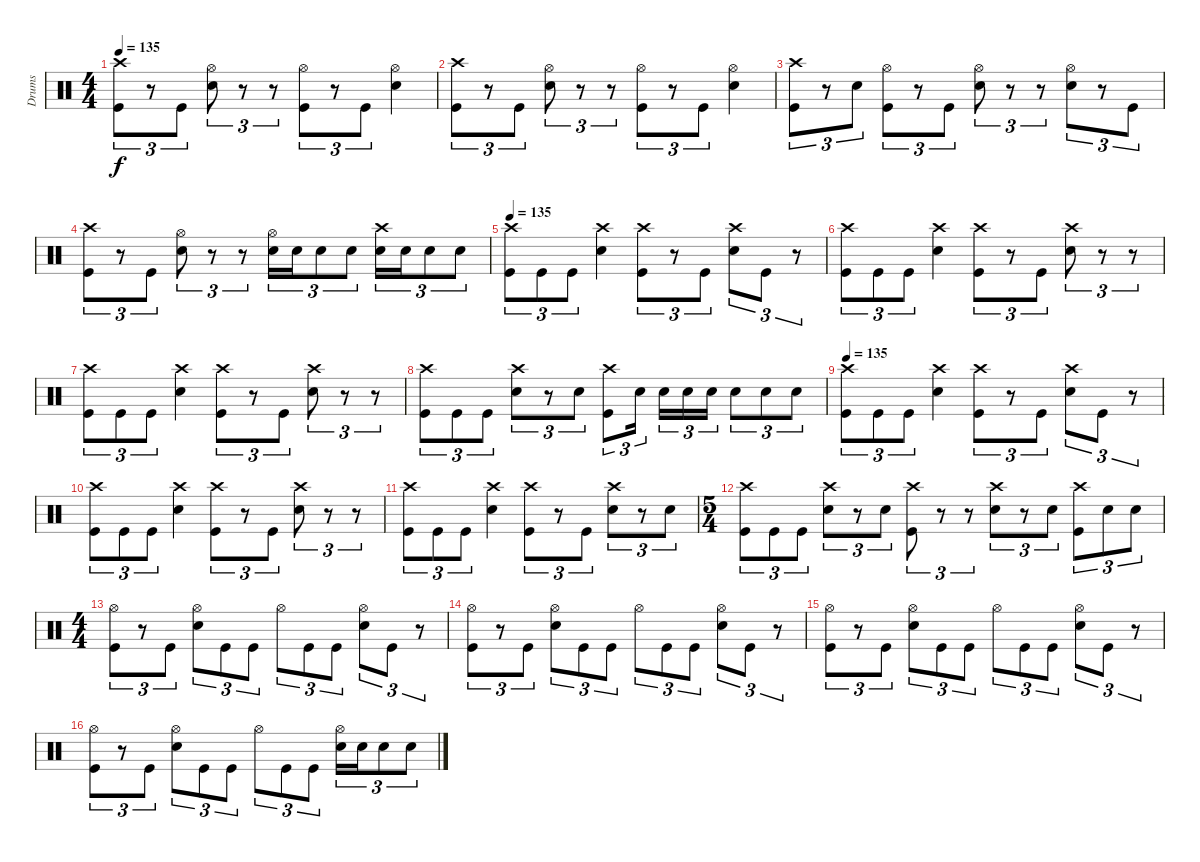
\track ("Drums" "Drums") {instrument percussion}
\staff {score}
\articulation defaults
\ts (4 4)
\tempo 135
\clef neutral
\ks c
("Kick (hit)" "Crash high (hit)").8{tu (3 2) dy f} r.8{tu (3 2)} "Kick (hit)".8{tu (3 2)} ("Snare (hit) 2" "Hi-Hat (open)").8{tu (3 2)} r.8{tu (3 2)} r.8{tu (3 2)} ("Kick (hit)" "Hi-Hat (open)").8{tu (3 2)} r.8{tu (3 2)} "Kick (hit)".8{tu (3 2)} ("Snare (hit) 2" "Hi-Hat (open)").4 |
("Kick (hit)" "Crash high (hit)").8{tu (3 2)} r.8{tu (3 2)} "Kick (hit)".8{tu (3 2)} ("Snare (hit) 2" "Hi-Hat (open)").8{tu (3 2)} r.8{tu (3 2)} r.8{tu (3 2)} ("Kick (hit)" "Hi-Hat (open)").8{tu (3 2)} r.8{tu (3 2)} "Kick (hit)".8{tu (3 2)} ("Snare (hit) 2" "Hi-Hat (open)").4 |
("Kick (hit)" "Crash high (hit)").8{tu (3 2)} r.8{tu (3 2)} "Snare (hit) 2".8{tu (3 2)} ("Kick (hit)" "Hi-Hat (open)").8{tu (3 2)} r.8{tu (3 2)} "Kick (hit)".8{tu (3 2)} ("Snare (hit) 2" "Hi-Hat (open)").8{tu (3 2)} r.8{tu (3 2)} r.8{tu (3 2)} ("Snare (hit) 2" "Hi-Hat (open)").8{tu (3 2)} r.8{tu (3 2)} "Kick (hit)".8{tu (3 2)} |
("Kick (hit)" "Crash high (hit)").8{tu (3 2)} r.8{tu (3 2)} "Kick (hit)".8{tu (3 2)} ("Snare (hit) 2" "Hi-Hat (open)").8{tu (3 2)} r.8{tu (3 2)} r.8{tu (3 2)} ("Snare (hit) 2" "Hi-Hat (open)").16{tu (3 2)} "Snare (hit) 2".16{tu (3 2)} "Snare (hit) 2".8{tu (3 2)} "Snare (hit) 2".8{tu (3 2)} ("Snare (hit) 2" "Crash high (hit)").16{tu (3 2)} "Snare (hit) 2".16{tu (3 2)} "Snare (hit) 2".8{tu (3 2)} "Snare (hit) 2".8{tu (3 2)} |
\tempo 135
("Kick (hit)" "Crash high (hit)").8{tu (3 2)} "Kick (hit)".8{tu (3 2)} "Kick (hit)".8{tu (3 2)} ("Snare (hit) 2" "Crash high (hit)").4 ("Kick (hit)" "Crash high (hit)").8{tu (3 2)} r.8{tu (3 2)} "Kick (hit)".8{tu (3 2)} ("Snare (hit) 2" "Crash high (hit)").8{tu (3 2)} "Kick (hit)".8{tu (3 2)} r.8{tu (3 2)} |
("Kick (hit)" "Crash high (hit)").8{tu (3 2)} "Kick (hit)".8{tu (3 2)} "Kick (hit)".8{tu (3 2)} ("Snare (hit) 2" "Crash high (hit)").4 ("Kick (hit)" "Crash high (hit)").8{tu (3 2)} r.8{tu (3 2)} "Kick (hit)".8{tu (3 2)} ("Snare (hit) 2" "Crash high (hit)").8{tu (3 2)} r.8{tu (3 2)} r.8{tu (3 2)} |
("Kick (hit)" "Crash high (hit)").8{tu (3 2)} "Kick (hit)".8{tu (3 2)} "Kick (hit)".8{tu (3 2)} ("Snare (hit) 2" "Crash high (hit)").4 ("Kick (hit)" "Crash high (hit)").8{tu (3 2)} r.8{tu (3 2)} "Kick (hit)".8{tu (3 2)} ("Snare (hit) 2" "Crash high (hit)").8{tu (3 2)} r.8{tu (3 2)} r.8{tu (3 2)} |
("Kick (hit)" "Crash high (hit)").8{tu (3 2)} "Kick (hit)".8{tu (3 2)} "Kick (hit)".8{tu (3 2)} ("Snare (hit) 2" "Crash high (hit)").8{tu (3 2)} r.8{tu (3 2)} "Snare (hit) 2".8{tu (3 2)} ("Kick (hit)" "Crash high (hit)").8{tu (3 2)} "Snare (hit) 2".16{tu (3 2)} "Snare (hit) 2".16{tu (3 2)} "Snare (hit) 2".16{tu (3 2)} "Snare (hit) 2".16{tu (3 2)} "Snare (hit) 2".8{tu (3 2)} "Snare (hit) 2".8{tu (3 2)} "Snare (hit) 2".8{tu (3 2)} |
\tempo 135
("Kick (hit)" "Crash high (hit)").8{tu (3 2)} "Kick (hit)".8{tu (3 2)} "Kick (hit)".8{tu (3 2)} ("Snare (hit) 2" "Crash high (hit)").4 ("Kick (hit)" "Crash high (hit)").8{tu (3 2)} r.8{tu (3 2)} "Kick (hit)".8{tu (3 2)} ("Snare (hit) 2" "Crash high (hit)").8{tu (3 2)} "Kick (hit)".8{tu (3 2)} r.8{tu (3 2)} |
("Kick (hit)" "Crash high (hit)").8{tu (3 2)} "Kick (hit)".8{tu (3 2)} "Kick (hit)".8{tu (3 2)} ("Snare (hit) 2" "Crash high (hit)").4 ("Kick (hit)" "Crash high (hit)").8{tu (3 2)} r.8{tu (3 2)} "Kick (hit)".8{tu (3 2)} ("Snare (hit) 2" "Crash high (hit)").8{tu (3 2)} r.8{tu (3 2)} r.8{tu (3 2)} |
("Kick (hit)" "Crash high (hit)").8{tu (3 2)} "Kick (hit)".8{tu (3 2)} "Kick (hit)".8{tu (3 2)} ("Snare (hit) 2" "Crash high (hit)").4 ("Kick (hit)" "Crash high (hit)").8{tu (3 2)} r.8{tu (3 2)} "Kick (hit)".8{tu (3 2)} ("Snare (hit) 2" "Crash high (hit)").8{tu (3 2)} r.8{tu (3 2)} "Snare (hit) 2".8{tu (3 2)} |
\ts (5 4)
("Kick (hit)" "Crash high (hit)").8{tu (3 2)} "Kick (hit)".8{tu (3 2)} "Kick (hit)".8{tu (3 2)} ("Snare (hit) 2" "Crash high (hit)").8{tu (3 2)} r.8{tu (3 2)} "Snare (hit) 2".8{tu (3 2)} ("Kick (hit)" "Crash high (hit)").8{tu (3 2)} r.8{tu (3 2)} r.8{tu (3 2)} ("Snare (hit) 2" "Crash high (hit)").8{tu (3 2)} r.8{tu (3 2)} "Snare (hit) 2".8{tu (3 2)} ("Kick (hit)" "Crash high (hit)").8{tu (3 2)} "Snare (hit) 2".8{tu (3 2)} "Snare (hit) 2".8{tu (3 2)} |
\ts (4 4)
("Kick (hit)" "Hi-Hat (open)").8{tu (3 2)} r.8{tu (3 2)} "Kick (hit)".8{tu (3 2)} ("Snare (hit) 2" "Hi-Hat (open)").8{tu (3 2)} "Kick (hit)".8{tu (3 2)} "Kick (hit)".8{tu (3 2)} "Hi-Hat (open)".8{tu (3 2)} "Kick (hit)".8{tu (3 2)} "Kick (hit)".8{tu (3 2)} ("Snare (hit) 2" "Hi-Hat (open)").8{tu (3 2)} "Kick (hit)".8{tu (3 2)} r.8{tu (3 2)} |
("Kick (hit)" "Hi-Hat (open)").8{tu (3 2)} r.8{tu (3 2)} "Kick (hit)".8{tu (3 2)} ("Snare (hit) 2" "Hi-Hat (open)").8{tu (3 2)} "Kick (hit)".8{tu (3 2)} "Kick (hit)".8{tu (3 2)} "Hi-Hat (open)".8{tu (3 2)} "Kick (hit)".8{tu (3 2)} "Kick (hit)".8{tu (3 2)} ("Snare (hit) 2" "Hi-Hat (open)").8{tu (3 2)} "Kick (hit)".8{tu (3 2)} r.8{tu (3 2)} |
("Kick (hit)" "Hi-Hat (open)").8{tu (3 2)} r.8{tu (3 2)} "Kick (hit)".8{tu (3 2)} ("Snare (hit) 2" "Hi-Hat (open)").8{tu (3 2)} "Kick (hit)".8{tu (3 2)} "Kick (hit)".8{tu (3 2)} "Hi-Hat (open)".8{tu (3 2)} "Kick (hit)".8{tu (3 2)} "Kick (hit)".8{tu (3 2)} ("Snare (hit) 2" "Hi-Hat (open)").8{tu (3 2)} "Kick (hit)".8{tu (3 2)} r.8{tu (3 2)} |
("Kick (hit)" "Hi-Hat (open)").8{tu (3 2)} r.8{tu (3 2)} "Kick (hit)".8{tu (3 2)} ("Snare (hit) 2" "Hi-Hat (open)").8{tu (3 2)} "Kick (hit)".8{tu (3 2)} "Kick (hit)".8{tu (3 2)} "Hi-Hat (open)".8{tu (3 2)} "Kick (hit)".8{tu (3 2)} "Kick (hit)".8{tu (3 2)} ("Snare (hit) 2" "Hi-Hat (open)").16{tu (3 2)} "Snare (hit) 2".16{tu (3 2)} "Snare (hit) 2".8{tu (3 2)} "Snare (hit) 2".8{tu (3 2)}
